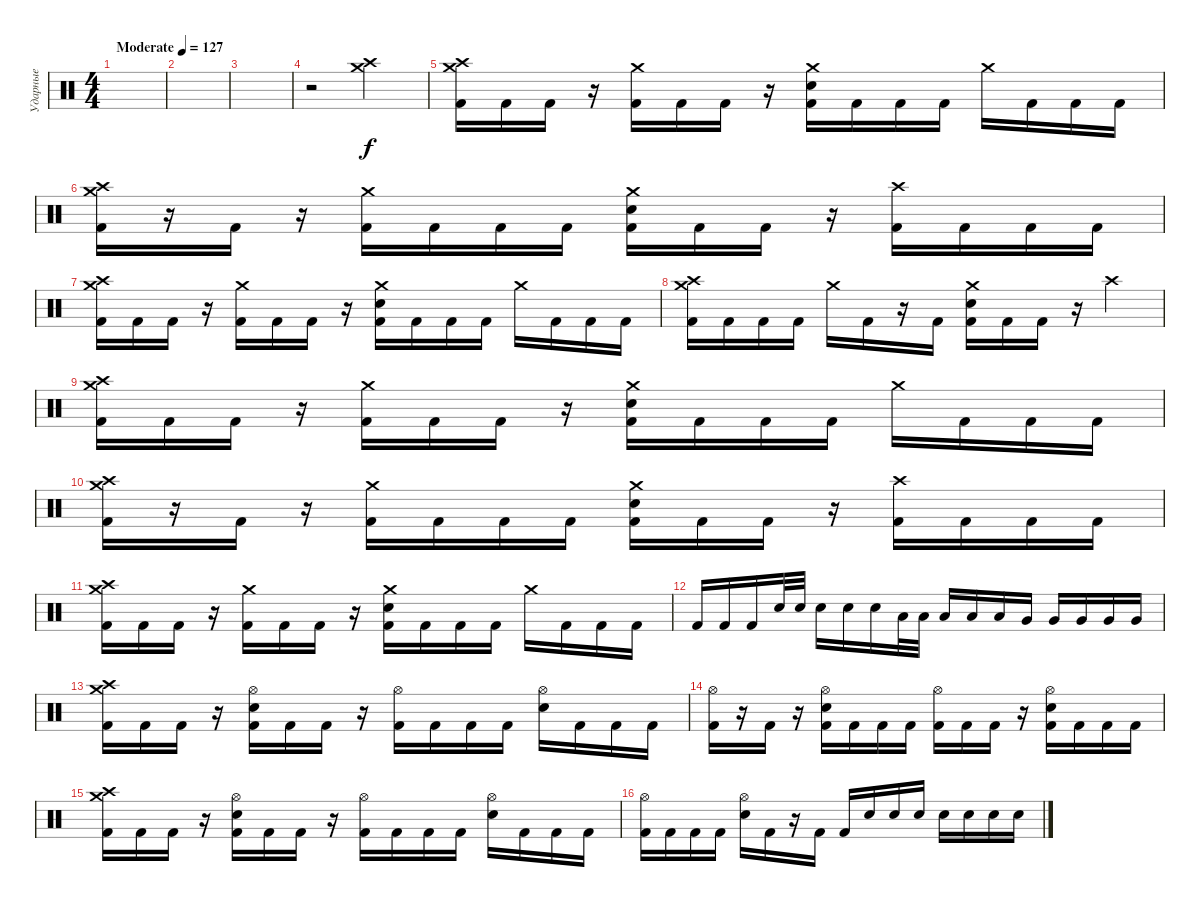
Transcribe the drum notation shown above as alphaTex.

\track ("Ударные" "Ударные") {instrument percussion}
\staff {score}
\articulation defaults
\ts (4 4)
\tempo (127 "Moderate")
\clef neutral
\ks c
|
|
|
r.2 ("Crash medium (hit)" "Crash high (hit)").2 |
("Crash medium (hit)" "Crash high (hit)" "Kick (hit) 2").16 "Kick (hit) 2".16 "Kick (hit) 2".16 r.16 ("Crash medium (hit)" "Kick (hit) 2").16 "Kick (hit) 2".16 "Kick (hit) 2".16 r.16 ("Crash medium (hit)" "Electric Snare (hit)" "Kick (hit) 2").16 "Kick (hit) 2".16 "Kick (hit) 2".16 "Kick (hit) 2".16 "Crash medium (hit)".16 "Kick (hit) 2".16 "Kick (hit) 2".16 "Kick (hit) 2".16 |
("Crash medium (hit)" "Crash high (hit)" "Kick (hit) 2").16 r.16 "Kick (hit) 2".16 r.16 ("Crash medium (hit)" "Kick (hit) 2").16 "Kick (hit) 2".16 "Kick (hit) 2".16 "Kick (hit) 2".16 ("Crash medium (hit)" "Electric Snare (hit)" "Kick (hit) 2").16 "Kick (hit) 2".16 "Kick (hit) 2".16 r.16 ("Crash high (hit)" "Kick (hit) 2").16 "Kick (hit) 2".16 "Kick (hit) 2".16 "Kick (hit) 2".16 |
("Crash medium (hit)" "Crash high (hit)" "Kick (hit) 2").16 "Kick (hit) 2".16 "Kick (hit) 2".16 r.16 ("Crash medium (hit)" "Kick (hit) 2").16 "Kick (hit) 2".16 "Kick (hit) 2".16 r.16 ("Crash medium (hit)" "Electric Snare (hit)" "Kick (hit) 2").16 "Kick (hit) 2".16 "Kick (hit) 2".16 "Kick (hit) 2".16 "Crash medium (hit)".16 "Kick (hit) 2".16 "Kick (hit) 2".16 "Kick (hit) 2".16 |
("Crash medium (hit)" "Crash high (hit)" "Kick (hit) 2").16 "Kick (hit) 2".16 "Kick (hit) 2".16 "Kick (hit) 2".16 "Crash medium (hit)".16 "Kick (hit) 2".16 r.16 "Kick (hit) 2".16 ("Crash medium (hit)" "Electric Snare (hit)" "Kick (hit) 2").16 "Kick (hit) 2".16 "Kick (hit) 2".16 r.16 "Crash high (hit)".4 |
("Crash medium (hit)" "Crash high (hit)" "Kick (hit) 2").16 "Kick (hit) 2".16 "Kick (hit) 2".16 r.16 ("Crash medium (hit)" "Kick (hit) 2").16 "Kick (hit) 2".16 "Kick (hit) 2".16 r.16 ("Crash medium (hit)" "Electric Snare (hit)" "Kick (hit) 2").16 "Kick (hit) 2".16 "Kick (hit) 2".16 "Kick (hit) 2".16 "Crash medium (hit)".16 "Kick (hit) 2".16 "Kick (hit) 2".16 "Kick (hit) 2".16 |
("Crash medium (hit)" "Crash high (hit)" "Kick (hit) 2").16 r.16 "Kick (hit) 2".16 r.16 ("Crash medium (hit)" "Kick (hit) 2").16 "Kick (hit) 2".16 "Kick (hit) 2".16 "Kick (hit) 2".16 ("Crash medium (hit)" "Electric Snare (hit)" "Kick (hit) 2").16 "Kick (hit) 2".16 "Kick (hit) 2".16 r.16 ("Crash high (hit)" "Kick (hit) 2").16 "Kick (hit) 2".16 "Kick (hit) 2".16 "Kick (hit) 2".16 |
("Crash medium (hit)" "Crash high (hit)" "Kick (hit) 2").16 "Kick (hit) 2".16 "Kick (hit) 2".16 r.16 ("Crash medium (hit)" "Kick (hit) 2").16 "Kick (hit) 2".16 "Kick (hit) 2".16 r.16 ("Crash medium (hit)" "Electric Snare (hit)" "Kick (hit) 2").16 "Kick (hit) 2".16 "Kick (hit) 2".16 "Kick (hit) 2".16 "Crash medium (hit)".16 "Kick (hit) 2".16 "Kick (hit) 2".16 "Kick (hit) 2".16 |
"Kick (hit) 2".16 "Kick (hit) 2".16 "Kick (hit) 2".16 "Electric Snare (hit)".32 "Electric Snare (hit)".32 "Electric Snare (hit)".16 "Electric Snare (hit)".16 "Electric Snare (hit)".16 "Low Tom (hit)".32 "Low Tom (hit)".32 "Low Tom (hit)".16 "Low Tom (hit)".16 "Low Tom (hit)".16 "Very Low Tom (hit)".16 "Very Low Tom (hit)".16 "Very Low Tom (hit)".16 "Very Low Tom (hit)".16 "Very Low Tom (hit)".16 |
("Crash medium (hit)" "Crash high (hit)" "Kick (hit) 2").16 "Kick (hit) 2".16 "Kick (hit) 2".16 r.16 ("Hi-Hat (open)" "Electric Snare (hit)" "Kick (hit) 2").16 "Kick (hit) 2".16 "Kick (hit) 2".16 r.16 ("Hi-Hat (open)" "Kick (hit) 2").16 "Kick (hit) 2".16 "Kick (hit) 2".16 "Kick (hit) 2".16 ("Hi-Hat (open)" "Electric Snare (hit)").16 "Kick (hit) 2".16 "Kick (hit) 2".16 "Kick (hit) 2".16 |
("Hi-Hat (open)" "Kick (hit) 2").16 r.16 "Kick (hit) 2".16 r.16 ("Hi-Hat (open)" "Electric Snare (hit)" "Kick (hit) 2").16 "Kick (hit) 2".16 "Kick (hit) 2".16 "Kick (hit) 2".16 ("Hi-Hat (open)" "Kick (hit) 2").16 "Kick (hit) 2".16 "Kick (hit) 2".16 r.16 ("Hi-Hat (open)" "Electric Snare (hit)" "Kick (hit) 2").16 "Kick (hit) 2".16 "Kick (hit) 2".16 "Kick (hit) 2".16 |
("Crash medium (hit)" "Crash high (hit)" "Kick (hit) 2").16 "Kick (hit) 2".16 "Kick (hit) 2".16 r.16 ("Hi-Hat (open)" "Electric Snare (hit)" "Kick (hit) 2").16 "Kick (hit) 2".16 "Kick (hit) 2".16 r.16 ("Hi-Hat (open)" "Kick (hit) 2").16 "Kick (hit) 2".16 "Kick (hit) 2".16 "Kick (hit) 2".16 ("Hi-Hat (open)" "Electric Snare (hit)").16 "Kick (hit) 2".16 "Kick (hit) 2".16 "Kick (hit) 2".16 |
("Hi-Hat (open)" "Kick (hit) 2").16 "Kick (hit) 2".16 "Kick (hit) 2".16 "Kick (hit) 2".16 ("Hi-Hat (open)" "Electric Snare (hit)").16 "Kick (hit) 2".16 r.16 "Kick (hit) 2".16 "Kick (hit) 2".16 "Electric Snare (hit)".16 "Electric Snare (hit)".16 "Electric Snare (hit)".16 "Electric Snare (hit)".16 "Electric Snare (hit)".16 "Electric Snare (hit)".16 "Electric Snare (hit)".16
